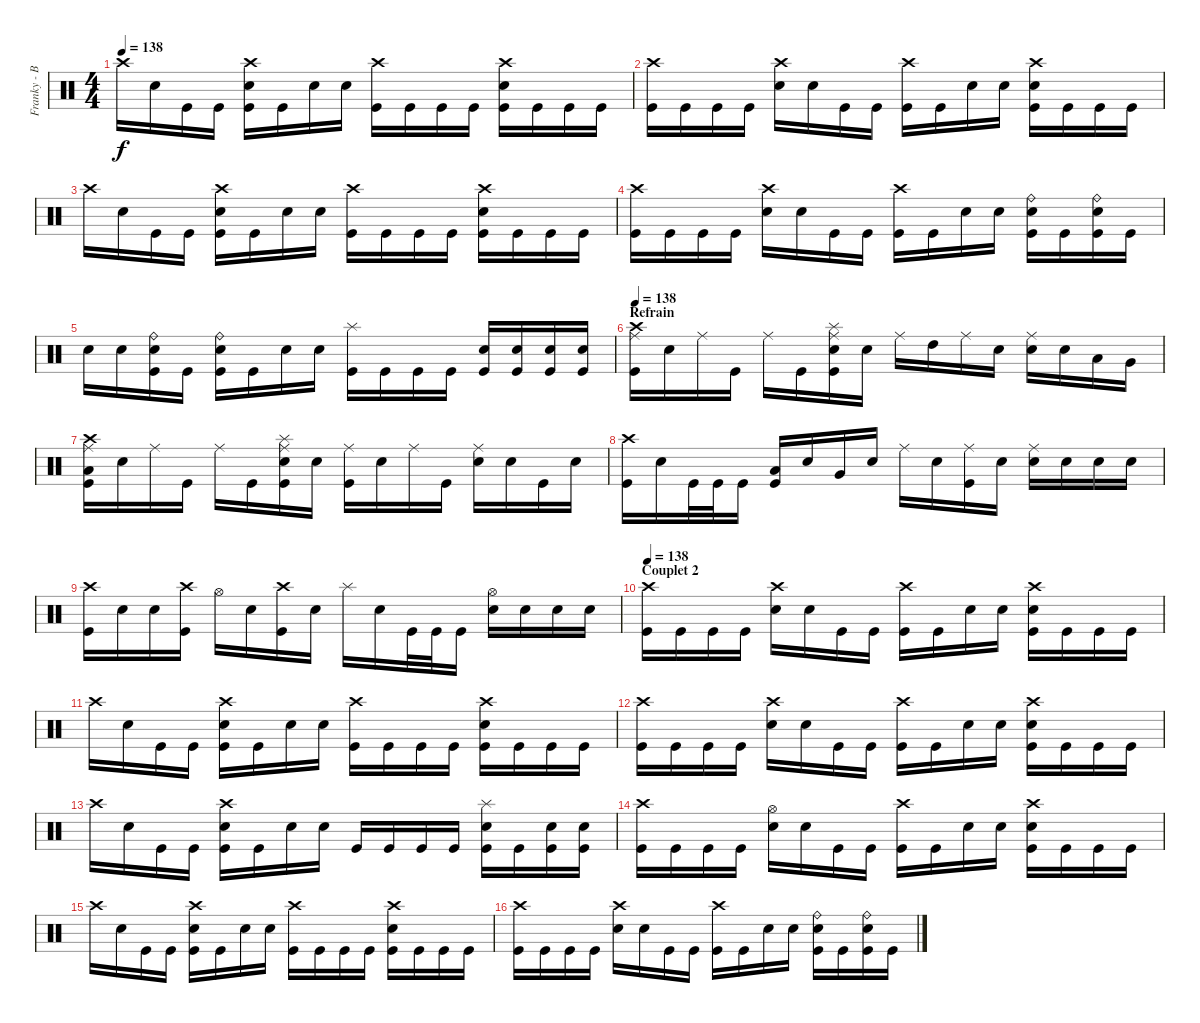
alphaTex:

\track ("Franky - Batterie" "Franky - B") {instrument percussion}
\staff {score}
\articulation defaults
\ts (4 4)
\tempo 138
\clef neutral
\ks c "Crash high (hit)".16{dy f} "Snare (hit)".16 "Kick (hit)".16 "Kick (hit)".16
("Crash high (hit)" "Electric Snare (hit)" "Kick (hit)").16 "Kick (hit)".16 "Snare (hit)".16 "Snare (hit)".16 ("Crash high (hit)" "Kick (hit)").16 "Kick (hit)".16 "Kick (hit)".16 "Kick (hit)".16 ("Crash high (hit)" "Electric Snare (hit)" "Kick (hit)").16 "Kick (hit)".16 "Kick (hit)".16 "Kick (hit)".16 |
("Crash high (hit)" "Kick (hit)").16 "Kick (hit)".16 "Kick (hit)".16 "Kick (hit)".16 ("Crash high (hit)" "Electric Snare (hit)").16 "Snare (hit)".16 "Kick (hit)".16 "Kick (hit)".16 ("Crash high (hit)" "Kick (hit)").16 "Kick (hit)".16 "Snare (hit)".16 "Snare (hit)".16 ("Crash high (hit)" "Electric Snare (hit)" "Kick (hit)").16 "Kick (hit)".16 "Kick (hit)".16 "Kick (hit)".16 |
"Crash high (hit)".16 "Snare (hit)".16 "Kick (hit)".16 "Kick (hit)".16 ("Crash high (hit)" "Electric Snare (hit)" "Kick (hit)").16 "Kick (hit)".16 "Snare (hit)".16 "Snare (hit)".16 ("Crash high (hit)" "Kick (hit)").16 "Kick (hit)".16 "Kick (hit)".16 "Kick (hit)".16 ("Crash high (hit)" "Electric Snare (hit)" "Kick (hit)").16 "Kick (hit)".16 "Kick (hit)".16 "Kick (hit)".16 |
("Crash high (hit)" "Kick (hit)").16 "Kick (hit)".16 "Kick (hit)".16 "Kick (hit)".16 ("Crash high (hit)" "Electric Snare (hit)").16 "Snare (hit)".16 "Kick (hit)".16 "Kick (hit)".16 ("Crash high (hit)" "Kick (hit)").16 "Kick (hit)".16 "Snare (hit)".16 "Snare (hit)".16 ("Ride (bell)" "Electric Snare (hit)" "Kick (hit)").16 "Kick (hit)".16 ("Ride (bell)" "Electric Snare (hit)" "Kick (hit)").16 "Kick (hit)".16 |
"Snare (hit)".16 "Snare (hit)".16 ("Ride (bell)" "Electric Snare (hit)" "Kick (hit)").16 "Kick (hit)".16 ("Ride (bell)" "Electric Snare (hit)" "Kick (hit)").16 "Kick (hit)".16 "Snare (hit)".16 "Snare (hit)".16 ("Splash (hit)" "Kick (hit)").16 "Kick (hit)".16 "Kick (hit)".16 "Kick (hit)".16 ("Electric Snare (hit)" "Kick (hit)").16 ("Electric Snare (hit)" "Kick (hit)").16 ("Electric Snare (hit)" "Kick (hit)").16 ("Electric Snare (hit)" "Kick (hit)").16 |
\section ("" "Refrain")
\tempo 138
("Crash high (hit)" "Ride (middle)" "Kick (hit)").16{volume 16 balance 8} "Snare (hit)".16 "Ride (middle)".16 "Kick (hit)".16 "Ride (middle)".16 "Kick (hit)".16 ("Splash (hit)" "Ride (middle)" "Electric Snare (hit)" "Kick (hit)").16 "Snare (hit)".16 "Ride (middle)".16 "High Tom (hit)".16 "Ride (middle)".16 "Snare (hit)".16 ("Ride (middle)" "Electric Snare (hit)").16 "Snare (hit)".16 "Low Tom (hit)".16 "Very Low Tom (hit)".16 |
("Crash high (hit)" "Ride (middle)" "Low Floor Tom (hit)" "Kick (hit)").16 "Snare (hit)".16 "Ride (middle)".16 "Kick (hit)".16 "Ride (middle)".16 "Kick (hit)".16 ("Splash (hit)" "Ride (middle)" "Electric Snare (hit)" "Kick (hit)").16 "Snare (hit)".16 ("Ride (middle)" "Kick (hit)").16 "Snare (hit)".16 "Ride (middle)".16 "Kick (hit)".16 ("Ride (middle)" "Electric Snare (hit)").16 "Snare (hit)".16 "Kick (hit)".16 "Snare (hit)".16 |
("Crash high (hit)" "Kick (hit)").16 "Snare (hit)".16 "Kick (hit)".32 "Kick (hit)".32 "Kick (hit)".16 ("Low Tom (hit)" "Kick (hit)").16 "Snare (hit)".16 "Very Low Tom (hit)".16 "Snare (hit)".16 "Ride (middle)".16 "Electric Snare (hit)".16 ("Ride (middle)" "Kick (hit)").16 "Snare (hit)".16 ("Ride (middle)" "Electric Snare (hit)").16 "Snare (hit)".16 "Electric Snare (hit)".16 "Electric Snare (hit)".16 |
("Crash high (hit)" "Kick (hit)").16 "Snare (hit)".16 "Snare (hit)".16 ("Crash high (hit)" "Kick (hit)").16 "Hi-Hat (open)".16 "Snare (hit)".16 ("Crash high (hit)" "Kick (hit)").16 "Snare (hit)".16 "Splash (hit)".16 "Snare (hit)".16 "Kick (hit)".32 "Kick (hit)".32 "Kick (hit)".16 ("Hi-Hat (open)" "Electric Snare (hit)").16 "Snare (hit)".16 "Snare (hit)".16 "Snare (hit)".16 |
\section ("" "Couplet 2")
\tempo 138
("Crash high (hit)" "Kick (hit)").16{volume 16 balance 8} "Kick (hit)".16 "Kick (hit)".16 "Kick (hit)".16 ("Crash high (hit)" "Electric Snare (hit)").16 "Snare (hit)".16 "Kick (hit)".16 "Kick (hit)".16 ("Crash high (hit)" "Kick (hit)").16 "Kick (hit)".16 "Snare (hit)".16 "Snare (hit)".16 ("Crash high (hit)" "Electric Snare (hit)" "Kick (hit)").16 "Kick (hit)".16 "Kick (hit)".16 "Kick (hit)".16 |
"Crash high (hit)".16 "Snare (hit)".16 "Kick (hit)".16 "Kick (hit)".16 ("Crash high (hit)" "Electric Snare (hit)" "Kick (hit)").16 "Kick (hit)".16 "Snare (hit)".16 "Snare (hit)".16 ("Crash high (hit)" "Kick (hit)").16 "Kick (hit)".16 "Kick (hit)".16 "Kick (hit)".16 ("Crash high (hit)" "Electric Snare (hit)" "Kick (hit)").16 "Kick (hit)".16 "Kick (hit)".16 "Kick (hit)".16 |
("Crash high (hit)" "Kick (hit)").16 "Kick (hit)".16 "Kick (hit)".16 "Kick (hit)".16 ("Crash high (hit)" "Electric Snare (hit)").16 "Snare (hit)".16 "Kick (hit)".16 "Kick (hit)".16 ("Crash high (hit)" "Kick (hit)").16 "Kick (hit)".16 "Snare (hit)".16 "Snare (hit)".16 ("Crash high (hit)" "Electric Snare (hit)" "Kick (hit)").16 "Kick (hit)".16 "Kick (hit)".16 "Kick (hit)".16 |
"Crash high (hit)".16 "Snare (hit)".16 "Kick (hit)".16 "Kick (hit)".16 ("Crash high (hit)" "Electric Snare (hit)" "Kick (hit)").16 "Kick (hit)".16 "Snare (hit)".16 "Snare (hit)".16 "Kick (hit)".16 "Kick (hit)".16 "Kick (hit)".16 "Kick (hit)".16 ("Splash (hit)" "Electric Snare (hit)" "Kick (hit)").16 "Kick (hit)".16 ("Electric Snare (hit)" "Kick (hit)").16 ("Electric Snare (hit)" "Kick (hit)").16 |
("Crash high (hit)" "Kick (hit)").16 "Kick (hit)".16 "Kick (hit)".16 "Kick (hit)".16 ("Hi-Hat (open)" "Electric Snare (hit)").16 "Snare (hit)".16 "Kick (hit)".16 "Kick (hit)".16 ("Crash high (hit)" "Kick (hit)").16 "Kick (hit)".16 "Snare (hit)".16 "Snare (hit)".16 ("Crash high (hit)" "Electric Snare (hit)" "Kick (hit)").16 "Kick (hit)".16 "Kick (hit)".16 "Kick (hit)".16 |
"Crash high (hit)".16 "Snare (hit)".16 "Kick (hit)".16 "Kick (hit)".16 ("Crash high (hit)" "Electric Snare (hit)" "Kick (hit)").16 "Kick (hit)".16 "Snare (hit)".16 "Snare (hit)".16 ("Crash high (hit)" "Kick (hit)").16 "Kick (hit)".16 "Kick (hit)".16 "Kick (hit)".16 ("Crash high (hit)" "Electric Snare (hit)" "Kick (hit)").16 "Kick (hit)".16 "Kick (hit)".16 "Kick (hit)".16 |
("Crash high (hit)" "Kick (hit)").16 "Kick (hit)".16 "Kick (hit)".16 "Kick (hit)".16 ("Crash high (hit)" "Electric Snare (hit)").16 "Snare (hit)".16 "Kick (hit)".16 "Kick (hit)".16 ("Crash high (hit)" "Kick (hit)").16 "Kick (hit)".16 "Snare (hit)".16 "Snare (hit)".16 ("Ride (bell)" "Electric Snare (hit)" "Kick (hit)").16 "Kick (hit)".16 ("Ride (bell)" "Electric Snare (hit)" "Kick (hit)").16 "Kick (hit)".16
